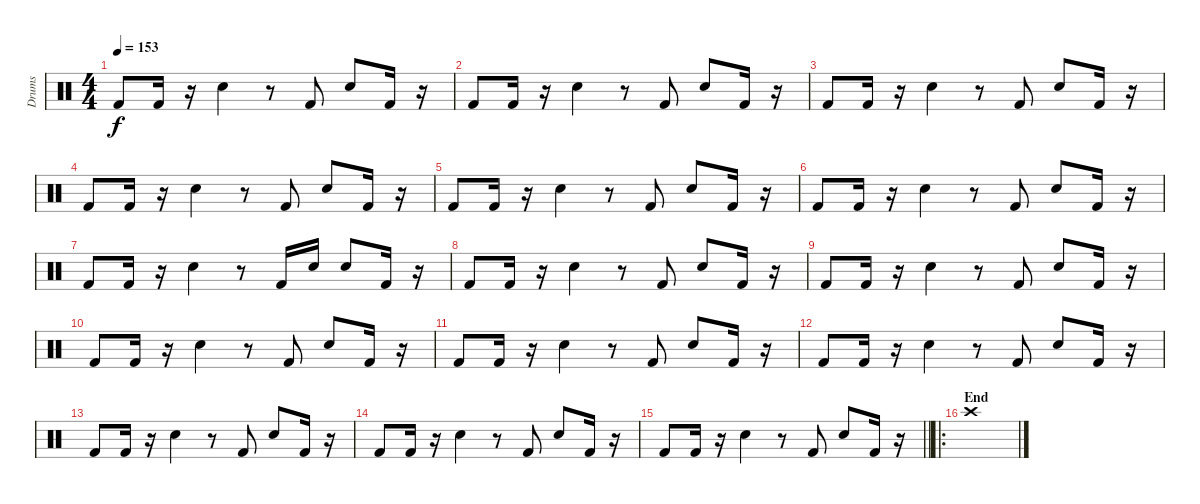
\track ("Drums" "Drums") {instrument percussion}
\staff {score}
\articulation defaults
\ts (4 4)
\tempo 153
\clef neutral
\ks c "Kick (hit) 2".8{dy f} "Kick (hit) 2".16
r.16 "Electric Snare (hit)".4 r.8 "Kick (hit) 2".8 "Electric Snare (hit)".8 "Kick (hit) 2".16 r.16 |
"Kick (hit) 2".8 "Kick (hit) 2".16 r.16 "Electric Snare (hit)".4 r.8 "Kick (hit) 2".8 "Electric Snare (hit)".8 "Kick (hit) 2".16 r.16 |
"Kick (hit) 2".8 "Kick (hit) 2".16 r.16 "Electric Snare (hit)".4 r.8 "Kick (hit) 2".8 "Electric Snare (hit)".8 "Kick (hit) 2".16 r.16 |
"Kick (hit) 2".8 "Kick (hit) 2".16 r.16 "Electric Snare (hit)".4 r.8 "Kick (hit) 2".8 "Electric Snare (hit)".8 "Kick (hit) 2".16 r.16 |
"Kick (hit) 2".8 "Kick (hit) 2".16 r.16 "Electric Snare (hit)".4 r.8 "Kick (hit) 2".8 "Electric Snare (hit)".8 "Kick (hit) 2".16 r.16 |
"Kick (hit) 2".8 "Kick (hit) 2".16 r.16 "Electric Snare (hit)".4 r.8 "Kick (hit) 2".8 "Electric Snare (hit)".8 "Kick (hit) 2".16 r.16 |
"Kick (hit) 2".8 "Kick (hit) 2".16 r.16 "Electric Snare (hit)".4 r.8 "Kick (hit) 2".16 "Electric Snare (hit)".16 "Electric Snare (hit)".8 "Kick (hit) 2".16 r.16 |
"Kick (hit) 2".8 "Kick (hit) 2".16 r.16 "Electric Snare (hit)".4 r.8 "Kick (hit) 2".8 "Electric Snare (hit)".8 "Kick (hit) 2".16 r.16 |
"Kick (hit) 2".8 "Kick (hit) 2".16 r.16 "Electric Snare (hit)".4 r.8 "Kick (hit) 2".8 "Electric Snare (hit)".8 "Kick (hit) 2".16 r.16 |
"Kick (hit) 2".8 "Kick (hit) 2".16 r.16 "Electric Snare (hit)".4 r.8 "Kick (hit) 2".8 "Electric Snare (hit)".8 "Kick (hit) 2".16 r.16 |
"Kick (hit) 2".8 "Kick (hit) 2".16 r.16 "Electric Snare (hit)".4 r.8 "Kick (hit) 2".8 "Electric Snare (hit)".8 "Kick (hit) 2".16 r.16 |
"Kick (hit) 2".8 "Kick (hit) 2".16 r.16 "Electric Snare (hit)".4 r.8 "Kick (hit) 2".8 "Electric Snare (hit)".8 "Kick (hit) 2".16 r.16 |
"Kick (hit) 2".8 "Kick (hit) 2".16 r.16 "Electric Snare (hit)".4 r.8 "Kick (hit) 2".8 "Electric Snare (hit)".8 "Kick (hit) 2".16 r.16 |
"Kick (hit) 2".8 "Kick (hit) 2".16 r.16 "Electric Snare (hit)".4 r.8 "Kick (hit) 2".8 "Electric Snare (hit)".8 "Kick (hit) 2".16 r.16 |
\barLineRight lightlight "Kick (hit) 2".8 "Kick (hit) 2".16
r.16 "Electric Snare (hit)".4 r.8 "Kick (hit) 2".8 "Electric Snare (hit)".8 "Kick (hit) 2".16 r.16 |
\ro
\section ("" "End")
"Crash high (hit)".1
